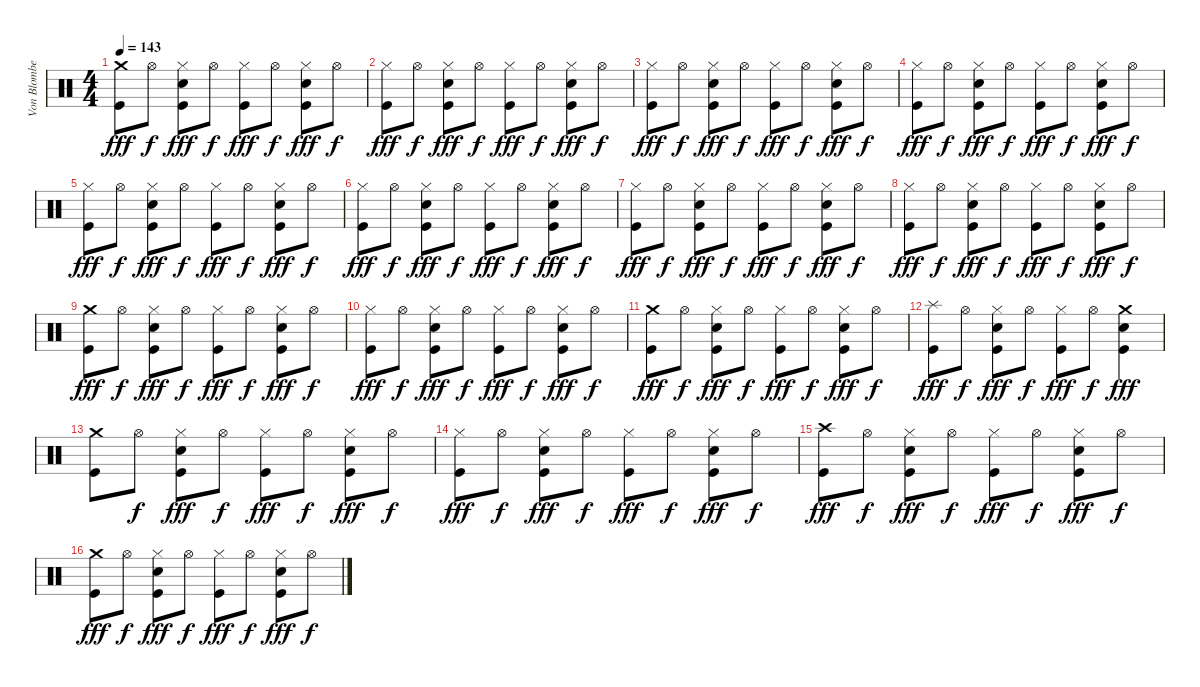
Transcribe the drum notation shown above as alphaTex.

\track ("Von Blomberg" "Von Blombe") {instrument percussion}
\staff {score}
\articulation defaults
\ts (4 4)
\tempo 143
\clef neutral
\ks c
("Crash medium (hit)" "Kick (hit)").8{dy fff} "Hi-Hat (open)".8{dy f} ("Hi-Hat (closed)" "Electric Snare (hit)" "Kick (hit)").8{dy fff} "Hi-Hat (open)".8{dy f} ("Hi-Hat (closed)" "Kick (hit)").8{dy fff} "Hi-Hat (open)".8{dy f} ("Hi-Hat (closed)" "Electric Snare (hit)" "Kick (hit)").8{dy fff} "Hi-Hat (open)".8{dy f} |
("Hi-Hat (closed)" "Kick (hit)").8{dy fff} "Hi-Hat (open)".8{dy f} ("Hi-Hat (closed)" "Electric Snare (hit)" "Kick (hit)").8{dy fff} "Hi-Hat (open)".8{dy f} ("Hi-Hat (closed)" "Kick (hit)").8{dy fff} "Hi-Hat (open)".8{dy f} ("Hi-Hat (closed)" "Electric Snare (hit)" "Kick (hit)").8{dy fff} "Hi-Hat (open)".8{dy f} |
("Hi-Hat (closed)" "Kick (hit)").8{dy fff} "Hi-Hat (open)".8{dy f} ("Hi-Hat (closed)" "Electric Snare (hit)" "Kick (hit)").8{dy fff} "Hi-Hat (open)".8{dy f} ("Hi-Hat (closed)" "Kick (hit)").8{dy fff} "Hi-Hat (open)".8{dy f} ("Hi-Hat (closed)" "Electric Snare (hit)" "Kick (hit)").8{dy fff} "Hi-Hat (open)".8{dy f} |
("Hi-Hat (closed)" "Kick (hit)").8{dy fff} "Hi-Hat (open)".8{dy f} ("Hi-Hat (closed)" "Electric Snare (hit)" "Kick (hit)").8{dy fff} "Hi-Hat (open)".8{dy f} ("Hi-Hat (closed)" "Kick (hit)").8{dy fff} "Hi-Hat (open)".8{dy f} ("Hi-Hat (closed)" "Electric Snare (hit)" "Kick (hit)").8{dy fff} "Hi-Hat (open)".8{dy f} |
("Hi-Hat (closed)" "Kick (hit)").8{dy fff} "Hi-Hat (open)".8{dy f} ("Hi-Hat (closed)" "Electric Snare (hit)" "Kick (hit)").8{dy fff} "Hi-Hat (open)".8{dy f} ("Hi-Hat (closed)" "Kick (hit)").8{dy fff} "Hi-Hat (open)".8{dy f} ("Hi-Hat (closed)" "Electric Snare (hit)" "Kick (hit)").8{dy fff} "Hi-Hat (open)".8{dy f} |
("Hi-Hat (closed)" "Kick (hit)").8{dy fff} "Hi-Hat (open)".8{dy f} ("Hi-Hat (closed)" "Electric Snare (hit)" "Kick (hit)").8{dy fff} "Hi-Hat (open)".8{dy f} ("Hi-Hat (closed)" "Kick (hit)").8{dy fff} "Hi-Hat (open)".8{dy f} ("Hi-Hat (closed)" "Electric Snare (hit)" "Kick (hit)").8{dy fff} "Hi-Hat (open)".8{dy f} |
("Hi-Hat (closed)" "Kick (hit)").8{dy fff} "Hi-Hat (open)".8{dy f} ("Hi-Hat (closed)" "Electric Snare (hit)" "Kick (hit)").8{dy fff} "Hi-Hat (open)".8{dy f} ("Hi-Hat (closed)" "Kick (hit)").8{dy fff} "Hi-Hat (open)".8{dy f} ("Hi-Hat (closed)" "Electric Snare (hit)" "Kick (hit)").8{dy fff} "Hi-Hat (open)".8{dy f} |
("Hi-Hat (closed)" "Kick (hit)").8{dy fff} "Hi-Hat (open)".8{dy f} ("Hi-Hat (closed)" "Electric Snare (hit)" "Kick (hit)").8{dy fff} "Hi-Hat (open)".8{dy f} ("Hi-Hat (closed)" "Kick (hit)").8{dy fff} "Hi-Hat (open)".8{dy f} ("Hi-Hat (closed)" "Electric Snare (hit)" "Kick (hit)").8{dy fff} "Hi-Hat (open)".8{dy f} |
("Crash medium (hit)" "Kick (hit)").8{dy fff} "Hi-Hat (open)".8{dy f} ("Hi-Hat (closed)" "Electric Snare (hit)" "Kick (hit)").8{dy fff} "Hi-Hat (open)".8{dy f} ("Hi-Hat (closed)" "Kick (hit)").8{dy fff} "Hi-Hat (open)".8{dy f} ("Hi-Hat (closed)" "Electric Snare (hit)" "Kick (hit)").8{dy fff} "Hi-Hat (open)".8{dy f} |
("Hi-Hat (closed)" "Kick (hit)").8{dy fff} "Hi-Hat (open)".8{dy f} ("Hi-Hat (closed)" "Electric Snare (hit)" "Kick (hit)").8{dy fff} "Hi-Hat (open)".8{dy f} ("Hi-Hat (closed)" "Kick (hit)").8{dy fff} "Hi-Hat (open)".8{dy f} ("Hi-Hat (closed)" "Electric Snare (hit)" "Kick (hit)").8{dy fff} "Hi-Hat (open)".8{dy f} |
("Crash medium (hit)" "Kick (hit)").8{dy fff} "Hi-Hat (open)".8{dy f} ("Hi-Hat (closed)" "Electric Snare (hit)" "Kick (hit)").8{dy fff} "Hi-Hat (open)".8{dy f} ("Hi-Hat (closed)" "Kick (hit)").8{dy fff} "Hi-Hat (open)".8{dy f} ("Hi-Hat (closed)" "Electric Snare (hit)" "Kick (hit)").8{dy fff} "Hi-Hat (open)".8{dy f} |
("Splash (hit)" "Kick (hit)").8{dy fff} "Hi-Hat (open)".8{dy f} ("Hi-Hat (closed)" "Electric Snare (hit)" "Kick (hit)").8{dy fff} "Hi-Hat (open)".8{dy f} ("Hi-Hat (closed)" "Kick (hit)").8{dy fff} "Hi-Hat (open)".8{dy f} ("Crash medium (hit)" "Electric Snare (hit)" "Kick (hit)").4{dy fff} |
("Crash medium (hit)" "Kick (hit)").8 "Hi-Hat (open)".8{dy f} ("Hi-Hat (closed)" "Electric Snare (hit)" "Kick (hit)").8{dy fff} "Hi-Hat (open)".8{dy f} ("Hi-Hat (closed)" "Kick (hit)").8{dy fff} "Hi-Hat (open)".8{dy f} ("Hi-Hat (closed)" "Electric Snare (hit)" "Kick (hit)").8{dy fff} "Hi-Hat (open)".8{dy f} |
("Hi-Hat (closed)" "Kick (hit)").8{dy fff} "Hi-Hat (open)".8{dy f} ("Hi-Hat (closed)" "Electric Snare (hit)" "Kick (hit)").8{dy fff} "Hi-Hat (open)".8{dy f} ("Hi-Hat (closed)" "Kick (hit)").8{dy fff} "Hi-Hat (open)".8{dy f} ("Hi-Hat (closed)" "Electric Snare (hit)" "Kick (hit)").8{dy fff} "Hi-Hat (open)".8{dy f} |
("Crash high (hit)" "Kick (hit)").8{dy fff} "Hi-Hat (open)".8{dy f} ("Hi-Hat (closed)" "Electric Snare (hit)" "Kick (hit)").8{dy fff} "Hi-Hat (open)".8{dy f} ("Hi-Hat (closed)" "Kick (hit)").8{dy fff} "Hi-Hat (open)".8{dy f} ("Hi-Hat (closed)" "Electric Snare (hit)" "Kick (hit)").8{dy fff} "Hi-Hat (open)".8{dy f} |
("Crash medium (hit)" "Kick (hit)").8{dy fff} "Hi-Hat (open)".8{dy f} ("Hi-Hat (closed)" "Electric Snare (hit)" "Kick (hit)").8{dy fff} "Hi-Hat (open)".8{dy f} ("Hi-Hat (closed)" "Kick (hit)").8{dy fff} "Hi-Hat (open)".8{dy f} ("Hi-Hat (closed)" "Electric Snare (hit)" "Kick (hit)").8{dy fff} "Hi-Hat (open)".8{dy f}
